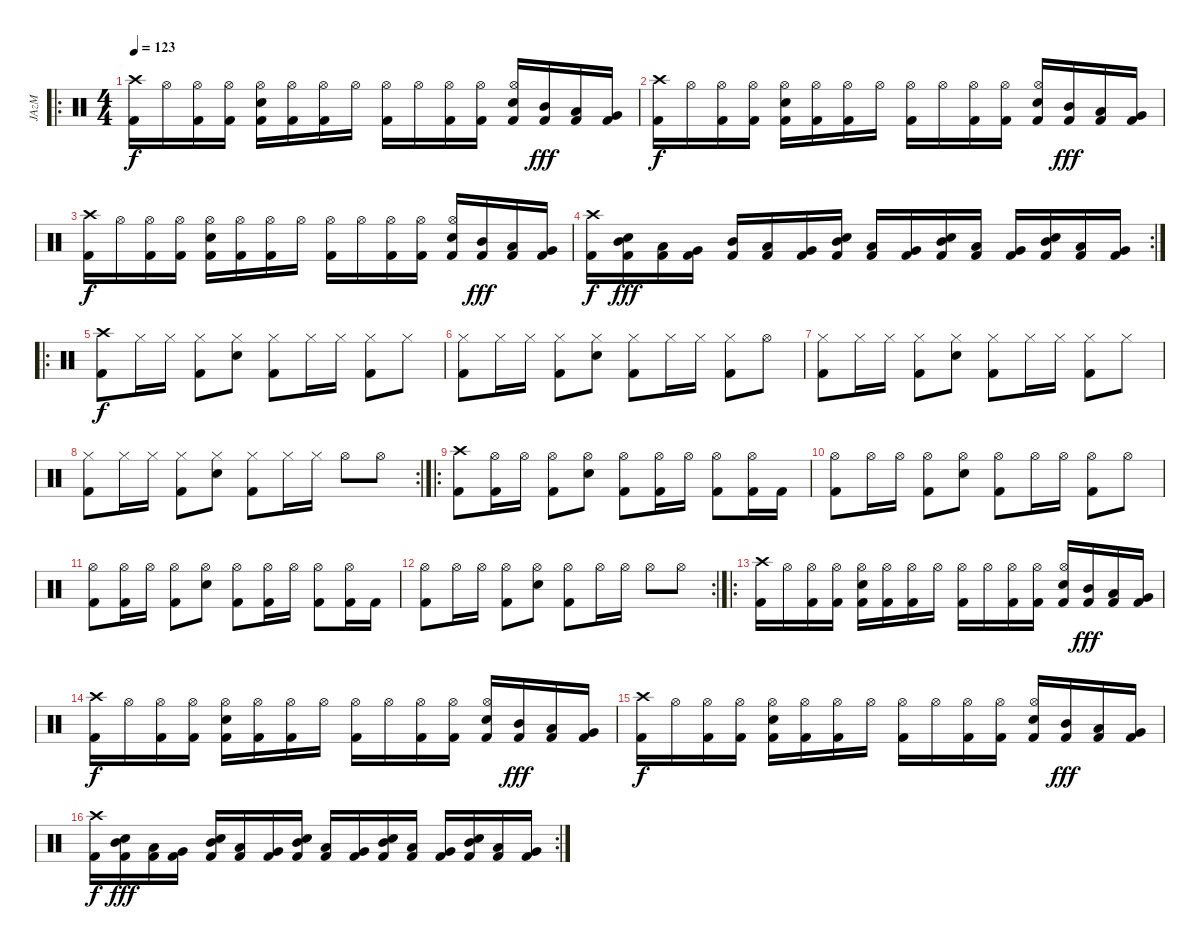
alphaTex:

\track ("JAzM" "JAzM") {instrument percussion}
\staff {score}
\articulation defaults
\ro
\ts (4 4)
\tempo 123
\clef neutral
\ks c
("Crash high (hit)" "Kick (hit) 2").16{dy f} "Hi-Hat (open)".16 ("Hi-Hat (open)" "Kick (hit) 2").16 ("Hi-Hat (open)" "Kick (hit) 2").16 ("Hi-Hat (open)" "Electric Snare (hit)" "Kick (hit) 2").16 ("Hi-Hat (open)" "Kick (hit) 2").16 ("Hi-Hat (open)" "Kick (hit) 2").16 "Hi-Hat (open)".16 ("Hi-Hat (open)" "Kick (hit) 2").16 "Hi-Hat (open)".16 ("Hi-Hat (open)" "Kick (hit) 2").16 ("Hi-Hat (open)" "Kick (hit) 2").16 ("Hi-Hat (open)" "Electric Snare (hit)" "Kick (hit) 2").16 ("Mid Tom (hit)" "Kick (hit) 2").16{dy fff} ("Low Tom (hit)" "Kick (hit) 2").16 ("Very Low Tom (hit)" "Kick (hit) 2").16 |
("Crash high (hit)" "Kick (hit) 2").16{dy f} "Hi-Hat (open)".16 ("Hi-Hat (open)" "Kick (hit) 2").16 ("Hi-Hat (open)" "Kick (hit) 2").16 ("Hi-Hat (open)" "Electric Snare (hit)" "Kick (hit) 2").16 ("Hi-Hat (open)" "Kick (hit) 2").16 ("Hi-Hat (open)" "Kick (hit) 2").16 "Hi-Hat (open)".16 ("Hi-Hat (open)" "Kick (hit) 2").16 "Hi-Hat (open)".16 ("Hi-Hat (open)" "Kick (hit) 2").16 ("Hi-Hat (open)" "Kick (hit) 2").16 ("Hi-Hat (open)" "Electric Snare (hit)" "Kick (hit) 2").16 ("Mid Tom (hit)" "Kick (hit) 2").16{dy fff} ("Low Tom (hit)" "Kick (hit) 2").16 ("Very Low Tom (hit)" "Kick (hit) 2").16 |
("Crash high (hit)" "Kick (hit) 2").16{dy f} "Hi-Hat (open)".16 ("Hi-Hat (open)" "Kick (hit) 2").16 ("Hi-Hat (open)" "Kick (hit) 2").16 ("Hi-Hat (open)" "Electric Snare (hit)" "Kick (hit) 2").16 ("Hi-Hat (open)" "Kick (hit) 2").16 ("Hi-Hat (open)" "Kick (hit) 2").16 "Hi-Hat (open)".16 ("Hi-Hat (open)" "Kick (hit) 2").16 "Hi-Hat (open)".16 ("Hi-Hat (open)" "Kick (hit) 2").16 ("Hi-Hat (open)" "Kick (hit) 2").16 ("Hi-Hat (open)" "Electric Snare (hit)" "Kick (hit) 2").16 ("Mid Tom (hit)" "Kick (hit) 2").16{dy fff} ("Low Tom (hit)" "Kick (hit) 2").16 ("Very Low Tom (hit)" "Kick (hit) 2").16 |
\rc 2
("Crash high (hit)" "Kick (hit) 2").16{dy f} ("Electric Snare (hit)" "Mid Tom (hit)" "Kick (hit) 2").16{dy fff} ("Low Tom (hit)" "Kick (hit) 2").16 ("Very Low Tom (hit)" "Kick (hit) 2").16 ("Mid Tom (hit)" "Kick (hit) 2").16 ("Low Tom (hit)" "Kick (hit) 2").16 ("Very Low Tom (hit)" "Kick (hit) 2").16 ("Electric Snare (hit)" "Mid Tom (hit)" "Kick (hit) 2").16 ("Low Tom (hit)" "Kick (hit) 2").16 ("Very Low Tom (hit)" "Kick (hit) 2").16 ("Electric Snare (hit)" "Mid Tom (hit)" "Kick (hit) 2").16 ("Low Tom (hit)" "Kick (hit) 2").16 ("Very Low Tom (hit)" "Kick (hit) 2").16 ("Electric Snare (hit)" "Mid Tom (hit)" "Kick (hit) 2").16 ("Low Tom (hit)" "Kick (hit) 2").16 ("Very Low Tom (hit)" "Kick (hit) 2").16 |
\ro
("Crash high (hit)" "Kick (hit) 2").8{dy f} "Hi-Hat (closed)".16 "Hi-Hat (closed)".16 ("Hi-Hat (closed)" "Kick (hit) 2").8 ("Hi-Hat (closed)" "Electric Snare (hit)").8 ("Hi-Hat (closed)" "Kick (hit) 2").8 "Hi-Hat (closed)".16 "Hi-Hat (closed)".16 ("Hi-Hat (closed)" "Kick (hit) 2").8 "Hi-Hat (closed)".8 |
("Hi-Hat (closed)" "Kick (hit) 2").8 "Hi-Hat (closed)".16 "Hi-Hat (closed)".16 ("Hi-Hat (closed)" "Kick (hit) 2").8 ("Hi-Hat (closed)" "Electric Snare (hit)").8 ("Hi-Hat (closed)" "Kick (hit) 2").8 "Hi-Hat (closed)".16 "Hi-Hat (closed)".16 ("Hi-Hat (closed)" "Kick (hit) 2").8 "Hi-Hat (open)".8 |
("Hi-Hat (closed)" "Kick (hit) 2").8 "Hi-Hat (closed)".16 "Hi-Hat (closed)".16 ("Hi-Hat (closed)" "Kick (hit) 2").8 ("Hi-Hat (closed)" "Electric Snare (hit)").8 ("Hi-Hat (closed)" "Kick (hit) 2").8 "Hi-Hat (closed)".16 "Hi-Hat (closed)".16 ("Hi-Hat (closed)" "Kick (hit) 2").8 "Hi-Hat (closed)".8 |
\rc 2
("Hi-Hat (closed)" "Kick (hit) 2").8 "Hi-Hat (closed)".16 "Hi-Hat (closed)".16 ("Hi-Hat (closed)" "Kick (hit) 2").8 ("Hi-Hat (closed)" "Electric Snare (hit)").8 ("Hi-Hat (closed)" "Kick (hit) 2").8 "Hi-Hat (closed)".16 "Hi-Hat (closed)".16 "Hi-Hat (open)".8 "Hi-Hat (open)".8 |
\ro
("Crash high (hit)" "Kick (hit) 2").8 ("Hi-Hat (open)" "Kick (hit) 2").16 "Hi-Hat (open)".16 ("Hi-Hat (open)" "Kick (hit) 2").8 ("Hi-Hat (open)" "Electric Snare (hit)").8 ("Hi-Hat (open)" "Kick (hit) 2").8 ("Hi-Hat (open)" "Kick (hit) 2").16 "Hi-Hat (open)".16 ("Hi-Hat (open)" "Kick (hit) 2").8 ("Hi-Hat (open)" "Kick (hit) 2").16 "Kick (hit) 2".16 |
("Hi-Hat (open)" "Kick (hit) 2").8 "Hi-Hat (open)".16 "Hi-Hat (open)".16 ("Hi-Hat (open)" "Kick (hit) 2").8 ("Hi-Hat (open)" "Electric Snare (hit)").8 ("Hi-Hat (open)" "Kick (hit) 2").8 "Hi-Hat (open)".16 "Hi-Hat (open)".16 ("Hi-Hat (open)" "Kick (hit) 2").8 "Hi-Hat (open)".8 |
("Hi-Hat (open)" "Kick (hit) 2").8 ("Hi-Hat (open)" "Kick (hit) 2").16 "Hi-Hat (open)".16 ("Hi-Hat (open)" "Kick (hit) 2").8 ("Hi-Hat (open)" "Electric Snare (hit)").8 ("Hi-Hat (open)" "Kick (hit) 2").8 ("Hi-Hat (open)" "Kick (hit) 2").16 "Hi-Hat (open)".16 ("Hi-Hat (open)" "Kick (hit) 2").8 ("Hi-Hat (open)" "Kick (hit) 2").16 "Kick (hit) 2".16 |
\rc 2
("Hi-Hat (open)" "Kick (hit) 2").8 "Hi-Hat (open)".16 "Hi-Hat (open)".16 ("Hi-Hat (open)" "Kick (hit) 2").8 ("Hi-Hat (open)" "Electric Snare (hit)").8 ("Hi-Hat (open)" "Kick (hit) 2").8 "Hi-Hat (open)".16 "Hi-Hat (open)".16 "Hi-Hat (open)".8 "Hi-Hat (open)".8 |
\ro
("Crash high (hit)" "Kick (hit) 2").16 "Hi-Hat (open)".16 ("Hi-Hat (open)" "Kick (hit) 2").16 ("Hi-Hat (open)" "Kick (hit) 2").16 ("Hi-Hat (open)" "Electric Snare (hit)" "Kick (hit) 2").16 ("Hi-Hat (open)" "Kick (hit) 2").16 ("Hi-Hat (open)" "Kick (hit) 2").16 "Hi-Hat (open)".16 ("Hi-Hat (open)" "Kick (hit) 2").16 "Hi-Hat (open)".16 ("Hi-Hat (open)" "Kick (hit) 2").16 ("Hi-Hat (open)" "Kick (hit) 2").16 ("Hi-Hat (open)" "Electric Snare (hit)" "Kick (hit) 2").16 ("Mid Tom (hit)" "Kick (hit) 2").16{dy fff} ("Low Tom (hit)" "Kick (hit) 2").16 ("Very Low Tom (hit)" "Kick (hit) 2").16 |
("Crash high (hit)" "Kick (hit) 2").16{dy f} "Hi-Hat (open)".16 ("Hi-Hat (open)" "Kick (hit) 2").16 ("Hi-Hat (open)" "Kick (hit) 2").16 ("Hi-Hat (open)" "Electric Snare (hit)" "Kick (hit) 2").16 ("Hi-Hat (open)" "Kick (hit) 2").16 ("Hi-Hat (open)" "Kick (hit) 2").16 "Hi-Hat (open)".16 ("Hi-Hat (open)" "Kick (hit) 2").16 "Hi-Hat (open)".16 ("Hi-Hat (open)" "Kick (hit) 2").16 ("Hi-Hat (open)" "Kick (hit) 2").16 ("Hi-Hat (open)" "Electric Snare (hit)" "Kick (hit) 2").16 ("Mid Tom (hit)" "Kick (hit) 2").16{dy fff} ("Low Tom (hit)" "Kick (hit) 2").16 ("Very Low Tom (hit)" "Kick (hit) 2").16 |
("Crash high (hit)" "Kick (hit) 2").16{dy f} "Hi-Hat (open)".16 ("Hi-Hat (open)" "Kick (hit) 2").16 ("Hi-Hat (open)" "Kick (hit) 2").16 ("Hi-Hat (open)" "Electric Snare (hit)" "Kick (hit) 2").16 ("Hi-Hat (open)" "Kick (hit) 2").16 ("Hi-Hat (open)" "Kick (hit) 2").16 "Hi-Hat (open)".16 ("Hi-Hat (open)" "Kick (hit) 2").16 "Hi-Hat (open)".16 ("Hi-Hat (open)" "Kick (hit) 2").16 ("Hi-Hat (open)" "Kick (hit) 2").16 ("Hi-Hat (open)" "Electric Snare (hit)" "Kick (hit) 2").16 ("Mid Tom (hit)" "Kick (hit) 2").16{dy fff} ("Low Tom (hit)" "Kick (hit) 2").16 ("Very Low Tom (hit)" "Kick (hit) 2").16 |
\rc 2
("Crash high (hit)" "Kick (hit) 2").16{dy f} ("Electric Snare (hit)" "Mid Tom (hit)" "Kick (hit) 2").16{dy fff} ("Low Tom (hit)" "Kick (hit) 2").16 ("Very Low Tom (hit)" "Kick (hit) 2").16 ("Electric Snare (hit)" "Mid Tom (hit)" "Kick (hit) 2").16 ("Low Tom (hit)" "Kick (hit) 2").16 ("Very Low Tom (hit)" "Kick (hit) 2").16 ("Electric Snare (hit)" "Mid Tom (hit)" "Kick (hit) 2").16 ("Low Tom (hit)" "Kick (hit) 2").16 ("Very Low Tom (hit)" "Kick (hit) 2").16 ("Electric Snare (hit)" "Mid Tom (hit)" "Kick (hit) 2").16 ("Low Tom (hit)" "Kick (hit) 2").16 ("Very Low Tom (hit)" "Kick (hit) 2").16 ("Electric Snare (hit)" "Mid Tom (hit)" "Kick (hit) 2").16 ("Low Tom (hit)" "Kick (hit) 2").16 ("Very Low Tom (hit)" "Kick (hit) 2").16
